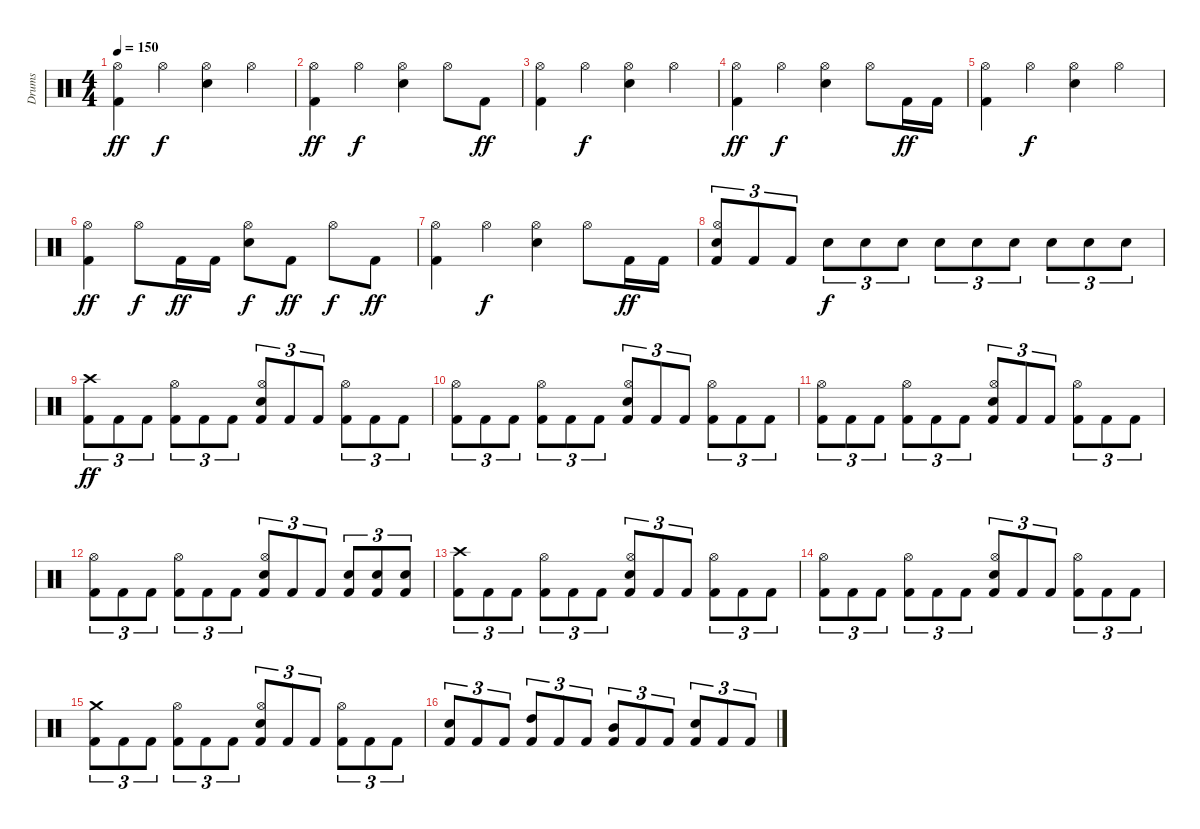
\track ("Drums" "Drums") {instrument percussion}
\staff {score}
\articulation defaults
\ts (4 4)
\tempo 150
\clef neutral
\ks c
("Kick (hit) 2" "Hi-Hat (open)").4{dy ff} "Hi-Hat (open)".4{dy f} ("Snare (hit) 2" "Hi-Hat (open)").4 "Hi-Hat (open)".4 |
("Kick (hit) 2" "Hi-Hat (open)").4{dy ff} "Hi-Hat (open)".4{dy f} ("Snare (hit) 2" "Hi-Hat (open)").4 "Hi-Hat (open)".8 "Kick (hit) 2".8{dy ff} |
("Kick (hit) 2" "Hi-Hat (open)").4 "Hi-Hat (open)".4{dy f} ("Snare (hit) 2" "Hi-Hat (open)").4 "Hi-Hat (open)".4 |
("Kick (hit) 2" "Hi-Hat (open)").4{dy ff} "Hi-Hat (open)".4{dy f} ("Snare (hit) 2" "Hi-Hat (open)").4 "Hi-Hat (open)".8 "Kick (hit) 2".16{dy ff} "Kick (hit) 2".16 |
("Kick (hit) 2" "Hi-Hat (open)").4 "Hi-Hat (open)".4{dy f} ("Snare (hit) 2" "Hi-Hat (open)").4 "Hi-Hat (open)".4 |
("Kick (hit) 2" "Hi-Hat (open)").4{dy ff} "Hi-Hat (open)".8{dy f} "Kick (hit) 2".16{dy ff} "Kick (hit) 2".16 ("Snare (hit) 2" "Hi-Hat (open)").8{dy f} "Kick (hit) 2".8{dy ff} "Hi-Hat (open)".8{dy f} "Kick (hit) 2".8{dy ff} |
("Kick (hit) 2" "Hi-Hat (open)").4 "Hi-Hat (open)".4{dy f} ("Snare (hit) 2" "Hi-Hat (open)").4 "Hi-Hat (open)".8 "Kick (hit) 2".16{dy ff} "Kick (hit) 2".16 |
("Snare (hit) 2" "Kick (hit) 2" "Hi-Hat (open)").8{tu (3 2)} "Kick (hit) 2".8{tu (3 2)} "Kick (hit) 2".8{tu (3 2)} "Snare (hit) 2".8{tu (3 2) dy f} "Snare (hit) 2".8{tu (3 2)} "Snare (hit) 2".8{tu (3 2)} "Snare (hit) 2".8{tu (3 2)} "Snare (hit) 2".8{tu (3 2)} "Snare (hit) 2".8{tu (3 2)} "Snare (hit) 2".8{tu (3 2)} "Snare (hit) 2".8{tu (3 2)} "Snare (hit) 2".8{tu (3 2)} |
("Crash high (hit)" "Kick (hit) 2").8{tu (3 2) dy ff} "Kick (hit) 2".8{tu (3 2)} "Kick (hit) 2".8{tu (3 2)} ("Kick (hit) 2" "Hi-Hat (open)").8{tu (3 2)} "Kick (hit) 2".8{tu (3 2)} "Kick (hit) 2".8{tu (3 2)} ("Snare (hit) 2" "Kick (hit) 2" "Hi-Hat (open)").8{tu (3 2)} "Kick (hit) 2".8{tu (3 2)} "Kick (hit) 2".8{tu (3 2)} ("Kick (hit) 2" "Hi-Hat (open)").8{tu (3 2)} "Kick (hit) 2".8{tu (3 2)} "Kick (hit) 2".8{tu (3 2)} |
("Kick (hit) 2" "Hi-Hat (open)").8{tu (3 2)} "Kick (hit) 2".8{tu (3 2)} "Kick (hit) 2".8{tu (3 2)} ("Kick (hit) 2" "Hi-Hat (open)").8{tu (3 2)} "Kick (hit) 2".8{tu (3 2)} "Kick (hit) 2".8{tu (3 2)} ("Snare (hit) 2" "Kick (hit) 2" "Hi-Hat (open)").8{tu (3 2)} "Kick (hit) 2".8{tu (3 2)} "Kick (hit) 2".8{tu (3 2)} ("Kick (hit) 2" "Hi-Hat (open)").8{tu (3 2)} "Kick (hit) 2".8{tu (3 2)} "Kick (hit) 2".8{tu (3 2)} |
("Kick (hit) 2" "Hi-Hat (open)").8{tu (3 2)} "Kick (hit) 2".8{tu (3 2)} "Kick (hit) 2".8{tu (3 2)} ("Kick (hit) 2" "Hi-Hat (open)").8{tu (3 2)} "Kick (hit) 2".8{tu (3 2)} "Kick (hit) 2".8{tu (3 2)} ("Snare (hit) 2" "Kick (hit) 2" "Hi-Hat (open)").8{tu (3 2)} "Kick (hit) 2".8{tu (3 2)} "Kick (hit) 2".8{tu (3 2)} ("Kick (hit) 2" "Hi-Hat (open)").8{tu (3 2)} "Kick (hit) 2".8{tu (3 2)} "Kick (hit) 2".8{tu (3 2)} |
("Kick (hit) 2" "Hi-Hat (open)").8{tu (3 2)} "Kick (hit) 2".8{tu (3 2)} "Kick (hit) 2".8{tu (3 2)} ("Kick (hit) 2" "Hi-Hat (open)").8{tu (3 2)} "Kick (hit) 2".8{tu (3 2)} "Kick (hit) 2".8{tu (3 2)} ("Snare (hit) 2" "Kick (hit) 2" "Hi-Hat (open)").8{tu (3 2)} "Kick (hit) 2".8{tu (3 2)} "Kick (hit) 2".8{tu (3 2)} ("Snare (hit) 2" "Kick (hit) 2").8{tu (3 2)} ("Snare (hit) 2" "Kick (hit) 2").8{tu (3 2)} ("Snare (hit) 2" "Kick (hit) 2").8{tu (3 2)} |
("Crash high (hit)" "Kick (hit) 2").8{tu (3 2)} "Kick (hit) 2".8{tu (3 2)} "Kick (hit) 2".8{tu (3 2)} ("Kick (hit) 2" "Hi-Hat (open)").8{tu (3 2)} "Kick (hit) 2".8{tu (3 2)} "Kick (hit) 2".8{tu (3 2)} ("Snare (hit) 2" "Kick (hit) 2" "Hi-Hat (open)").8{tu (3 2)} "Kick (hit) 2".8{tu (3 2)} "Kick (hit) 2".8{tu (3 2)} ("Kick (hit) 2" "Hi-Hat (open)").8{tu (3 2)} "Kick (hit) 2".8{tu (3 2)} "Kick (hit) 2".8{tu (3 2)} |
("Kick (hit) 2" "Hi-Hat (open)").8{tu (3 2)} "Kick (hit) 2".8{tu (3 2)} "Kick (hit) 2".8{tu (3 2)} ("Kick (hit) 2" "Hi-Hat (open)").8{tu (3 2)} "Kick (hit) 2".8{tu (3 2)} "Kick (hit) 2".8{tu (3 2)} ("Snare (hit) 2" "Kick (hit) 2" "Hi-Hat (open)").8{tu (3 2)} "Kick (hit) 2".8{tu (3 2)} "Kick (hit) 2".8{tu (3 2)} ("Kick (hit) 2" "Hi-Hat (open)").8{tu (3 2)} "Kick (hit) 2".8{tu (3 2)} "Kick (hit) 2".8{tu (3 2)} |
("Crash medium (hit)" "Kick (hit) 2").8{tu (3 2)} "Kick (hit) 2".8{tu (3 2)} "Kick (hit) 2".8{tu (3 2)} ("Kick (hit) 2" "Hi-Hat (open)").8{tu (3 2)} "Kick (hit) 2".8{tu (3 2)} "Kick (hit) 2".8{tu (3 2)} ("Snare (hit) 2" "Kick (hit) 2" "Hi-Hat (open)").8{tu (3 2)} "Kick (hit) 2".8{tu (3 2)} "Kick (hit) 2".8{tu (3 2)} ("Kick (hit) 2" "Hi-Hat (open)").8{tu (3 2)} "Kick (hit) 2".8{tu (3 2)} "Kick (hit) 2".8{tu (3 2)} |
("Snare (hit) 2" "Kick (hit) 2").8{tu (3 2)} "Kick (hit) 2".8{tu (3 2)} "Kick (hit) 2".8{tu (3 2)} ("High Tom (hit)" "Kick (hit) 2").8{tu (3 2)} "Kick (hit) 2".8{tu (3 2)} "Kick (hit) 2".8{tu (3 2)} ("Mid Tom (hit)" "Kick (hit) 2").8{tu (3 2)} "Kick (hit) 2".8{tu (3 2)} "Kick (hit) 2".8{tu (3 2)} ("Snare (hit) 2" "Kick (hit) 2").8{tu (3 2)} "Kick (hit) 2".8{tu (3 2)} "Kick (hit) 2".8{tu (3 2)}
